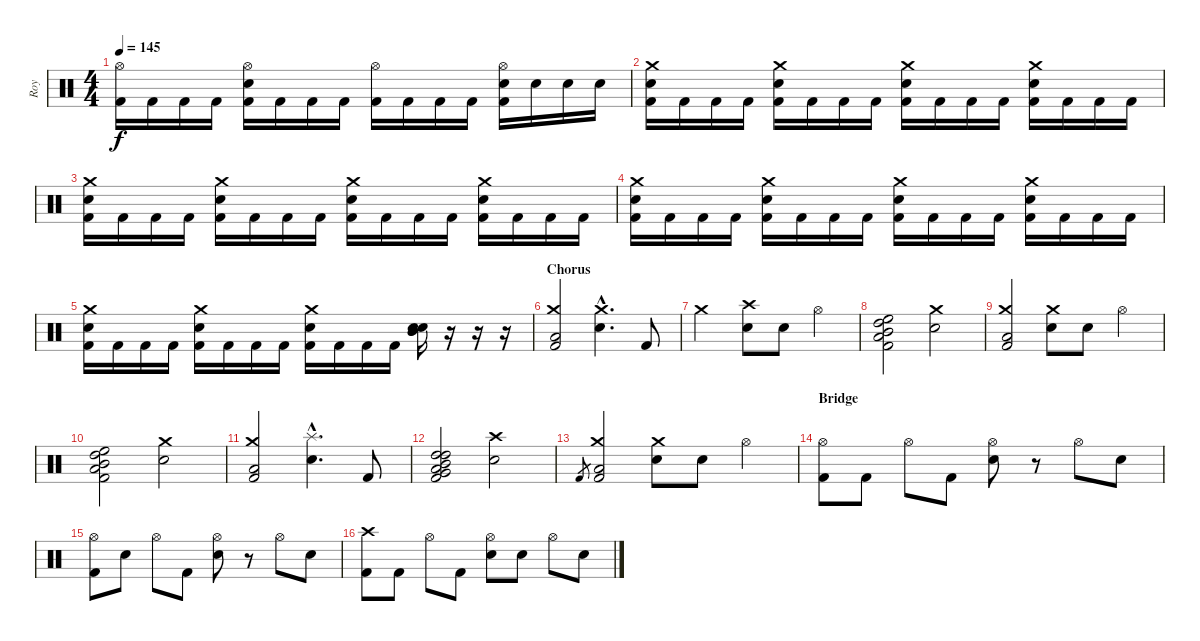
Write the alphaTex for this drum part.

\track ("Roy" "Roy") {instrument percussion}
\staff {score}
\articulation defaults
\ts (4 4)
\tempo 145
\clef neutral
\ks c
("Hi-Hat (open)" "Kick (hit) 2").16{dy f} "Kick (hit) 2".16 "Kick (hit) 2".16 "Kick (hit) 2".16 ("Hi-Hat (open)" "Electric Snare (hit)" "Kick (hit) 2").16 "Kick (hit) 2".16 "Kick (hit) 2".16 "Kick (hit) 2".16 ("Hi-Hat (open)" "Kick (hit) 2").16 "Kick (hit) 2".16 "Kick (hit) 2".16 "Kick (hit) 2".16 ("Hi-Hat (open)" "Electric Snare (hit)" "Kick (hit) 2").16 "Electric Snare (hit)".16 "Electric Snare (hit)".16 "Electric Snare (hit)".16 |
("Crash medium (hit)" "Electric Snare (hit)" "Kick (hit) 2").16 "Kick (hit) 2".16 "Kick (hit) 2".16 "Kick (hit) 2".16 ("Crash medium (hit)" "Electric Snare (hit)" "Kick (hit) 2").16 "Kick (hit) 2".16 "Kick (hit) 2".16 "Kick (hit) 2".16 ("Crash medium (hit)" "Electric Snare (hit)" "Kick (hit) 2").16 "Kick (hit) 2".16 "Kick (hit) 2".16 "Kick (hit) 2".16 ("Crash medium (hit)" "Electric Snare (hit)" "Kick (hit) 2").16 "Kick (hit) 2".16 "Kick (hit) 2".16 "Kick (hit) 2".16 |
("Crash medium (hit)" "Electric Snare (hit)" "Kick (hit) 2").16 "Kick (hit) 2".16 "Kick (hit) 2".16 "Kick (hit) 2".16 ("Crash medium (hit)" "Electric Snare (hit)" "Kick (hit) 2").16 "Kick (hit) 2".16 "Kick (hit) 2".16 "Kick (hit) 2".16 ("Crash medium (hit)" "Electric Snare (hit)" "Kick (hit) 2").16 "Kick (hit) 2".16 "Kick (hit) 2".16 "Kick (hit) 2".16 ("Crash medium (hit)" "Electric Snare (hit)" "Kick (hit) 2").16 "Kick (hit) 2".16 "Kick (hit) 2".16 "Kick (hit) 2".16 |
("Crash medium (hit)" "Electric Snare (hit)" "Kick (hit) 2").16 "Kick (hit) 2".16 "Kick (hit) 2".16 "Kick (hit) 2".16 ("Crash medium (hit)" "Electric Snare (hit)" "Kick (hit) 2").16 "Kick (hit) 2".16 "Kick (hit) 2".16 "Kick (hit) 2".16 ("Crash medium (hit)" "Electric Snare (hit)" "Kick (hit) 2").16 "Kick (hit) 2".16 "Kick (hit) 2".16 "Kick (hit) 2".16 ("Crash medium (hit)" "Electric Snare (hit)" "Kick (hit) 2").16 "Kick (hit) 2".16 "Kick (hit) 2".16 "Kick (hit) 2".16 |
("Crash medium (hit)" "Electric Snare (hit)" "Kick (hit) 2").16 "Kick (hit) 2".16 "Kick (hit) 2".16 "Kick (hit) 2".16 ("Crash medium (hit)" "Electric Snare (hit)" "Kick (hit) 2").16 "Kick (hit) 2".16 "Kick (hit) 2".16 "Kick (hit) 2".16 ("Crash medium (hit)" "Electric Snare (hit)" "Kick (hit) 2").16 "Kick (hit) 2".16 "Kick (hit) 2".16 "Kick (hit) 2".16 ("Electric Snare (hit)" "Mid Tom (hit)" "Mid Tom (hit)" "Electric Snare (hit)").16 r.16 r.16 r.16 |
\section ("" "Chorus")
("Crash medium (hit)" "Kick (hit) 2" "Low Tom (hit)").2 ("Crash medium (hit)"{hac} "Electric Snare (hit)"{hac}).4{d} "Kick (hit) 2".8 |
"Crash medium (hit)".2 ("Crash high (hit)" "Electric Snare (hit)").8 "Electric Snare (hit)".8 "Hi-Hat (open)".4 |
("High Tom (hit)" "Mid Tom (hit)" "High Floor Tom (hit)" "Kick (hit) 2" "Low Tom (hit)").2 ("Crash medium (hit)" "Electric Snare (hit)").2 |
("Crash medium (hit)" "Low Tom (hit)" "Kick (hit) 2").2 ("Crash medium (hit)" "Electric Snare (hit)").8 "Electric Snare (hit)".8 "Hi-Hat (open)".4 |
("High Tom (hit)" "Mid Tom (hit)" "High Floor Tom (hit)" "Kick (hit) 2" "Low Tom (hit)").2 ("Crash medium (hit)" "Electric Snare (hit)").2 |
("Crash medium (hit)" "Low Tom (hit)" "Kick (hit) 2").2 ("Splash (hit)"{hac} "Electric Snare (hit)"{hac}).4{d} "Kick (hit) 2".8 |
("High Tom (hit)" "Mid Tom (hit)" "High Tom (hit)" "Low Tom (hit)" "Kick (hit) 2" "Very Low Tom (hit)").2 ("Crash high (hit)" "Electric Snare (hit)").2 |
"Kick (hit) 2".8{gr} ("Crash medium (hit)" "Low Tom (hit)" "Kick (hit) 2").2 ("Crash medium (hit)" "Electric Snare (hit)").8 "Electric Snare (hit)".8 "Hi-Hat (open)".4 |
\section ("" "Bridge")
("Hi-Hat (open)" "Kick (hit) 2").8 "Kick (hit) 2".8 "Hi-Hat (open)".8 "Kick (hit) 2".8 ("Hi-Hat (open)" "Electric Snare (hit)").8 r.8 "Hi-Hat (open)".8 "Electric Snare (hit)".8 |
("Hi-Hat (open)" "Kick (hit) 2").8 "Electric Snare (hit)".8 "Hi-Hat (open)".8 "Kick (hit) 2".8 ("Hi-Hat (open)" "Electric Snare (hit)").8 r.8 "Hi-Hat (open)".8 "Electric Snare (hit)".8 |
("Crash high (hit)" "Kick (hit) 2").8 "Kick (hit) 2".8 "Hi-Hat (open)".8 "Kick (hit) 2".8 ("Hi-Hat (open)" "Electric Snare (hit)").8 "Electric Snare (hit)".8 "Hi-Hat (open)".8 "Electric Snare (hit)".8
